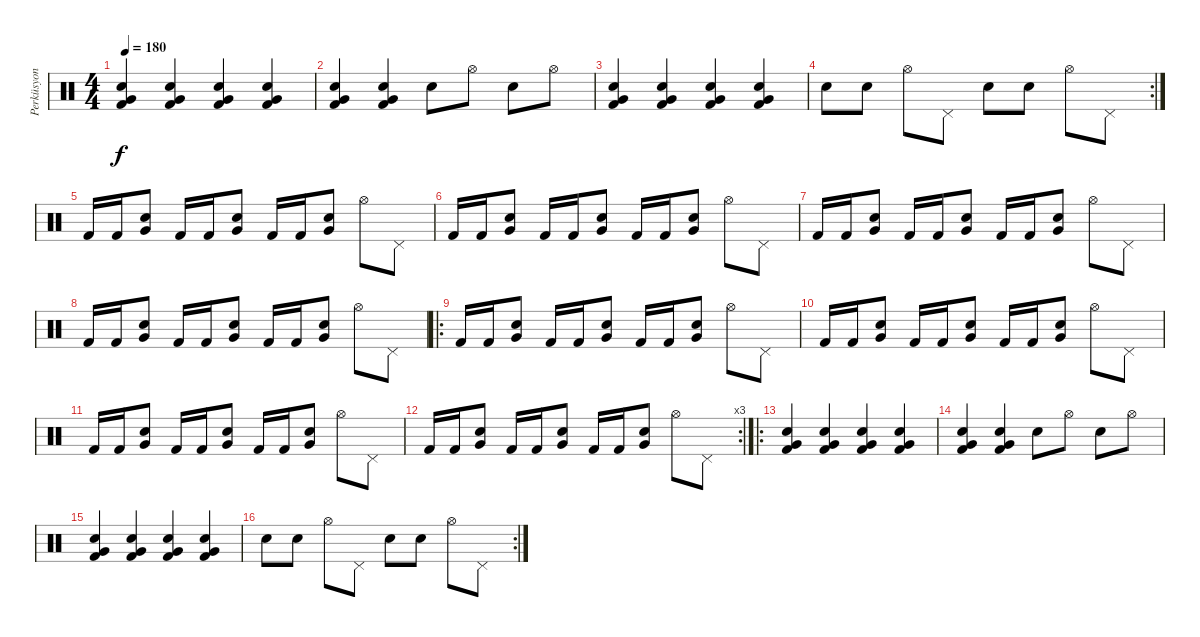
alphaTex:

\track ("Perküsyon" "Perküsyon") {instrument percussion}
\staff {score}
\articulation defaults
\ts (4 4)
\tempo 180
\clef neutral
\ks c
("Kick (hit) 2" "Very Low Tom (hit)" "Electric Snare (hit)").4{dy f} ("Kick (hit) 2" "Very Low Tom (hit)" "Electric Snare (hit)").4 ("Kick (hit) 2" "Very Low Tom (hit)" "Electric Snare (hit)").4 ("Kick (hit) 2" "Very Low Tom (hit)" "Electric Snare (hit)").4 |
("Kick (hit) 2" "Very Low Tom (hit)" "Electric Snare (hit)").4 ("Kick (hit) 2" "Very Low Tom (hit)" "Electric Snare (hit)").4 "Electric Snare (hit)".8 "Hi-Hat (open)".8 "Electric Snare (hit)".8 "Hi-Hat (open)".8 |
("Kick (hit) 2" "Very Low Tom (hit)" "Electric Snare (hit)").4 ("Kick (hit) 2" "Very Low Tom (hit)" "Electric Snare (hit)").4 ("Kick (hit) 2" "Very Low Tom (hit)" "Electric Snare (hit)").4 ("Kick (hit) 2" "Very Low Tom (hit)" "Electric Snare (hit)").4 |
\rc 2 "Electric Snare (hit)".8 "Electric Snare (hit)".8 "Hi-Hat (open)".8 "Pedal Hi-Hat (hit)".8 "Electric Snare (hit)".8 "Electric Snare (hit)".8 "Hi-Hat (open)".8 "Pedal Hi-Hat (hit)".8
|
"Kick (hit) 2".16 "Kick (hit) 2".16 ("Electric Snare (hit)" "Very Low Tom (hit)").8 "Kick (hit) 2".16 "Kick (hit) 2".16 ("Electric Snare (hit)" "Very Low Tom (hit)").8 "Kick (hit) 2".16 "Kick (hit) 2".16 ("Electric Snare (hit)" "Very Low Tom (hit)").8 "Hi-Hat (open)".8 "Pedal Hi-Hat (hit)".8 |
"Kick (hit) 2".16 "Kick (hit) 2".16 ("Electric Snare (hit)" "Very Low Tom (hit)").8 "Kick (hit) 2".16 "Kick (hit) 2".16 ("Electric Snare (hit)" "Very Low Tom (hit)").8 "Kick (hit) 2".16 "Kick (hit) 2".16 ("Electric Snare (hit)" "Very Low Tom (hit)").8 "Hi-Hat (open)".8 "Pedal Hi-Hat (hit)".8 |
"Kick (hit) 2".16 "Kick (hit) 2".16 ("Electric Snare (hit)" "Very Low Tom (hit)").8 "Kick (hit) 2".16 "Kick (hit) 2".16 ("Electric Snare (hit)" "Very Low Tom (hit)").8 "Kick (hit) 2".16 "Kick (hit) 2".16 ("Electric Snare (hit)" "Very Low Tom (hit)").8 "Hi-Hat (open)".8 "Pedal Hi-Hat (hit)".8 |
"Kick (hit) 2".16 "Kick (hit) 2".16 ("Electric Snare (hit)" "Very Low Tom (hit)").8 "Kick (hit) 2".16 "Kick (hit) 2".16 ("Electric Snare (hit)" "Very Low Tom (hit)").8 "Kick (hit) 2".16 "Kick (hit) 2".16 ("Electric Snare (hit)" "Very Low Tom (hit)").8 "Hi-Hat (open)".8 "Pedal Hi-Hat (hit)".8 |
\ro "Kick (hit) 2".16 "Kick (hit) 2".16
("Electric Snare (hit)" "Very Low Tom (hit)").8 "Kick (hit) 2".16 "Kick (hit) 2".16 ("Electric Snare (hit)" "Very Low Tom (hit)").8 "Kick (hit) 2".16 "Kick (hit) 2".16 ("Electric Snare (hit)" "Very Low Tom (hit)").8 "Hi-Hat (open)".8 "Pedal Hi-Hat (hit)".8 |
"Kick (hit) 2".16 "Kick (hit) 2".16 ("Electric Snare (hit)" "Very Low Tom (hit)").8 "Kick (hit) 2".16 "Kick (hit) 2".16 ("Electric Snare (hit)" "Very Low Tom (hit)").8 "Kick (hit) 2".16 "Kick (hit) 2".16 ("Electric Snare (hit)" "Very Low Tom (hit)").8 "Hi-Hat (open)".8 "Pedal Hi-Hat (hit)".8 |
"Kick (hit) 2".16 "Kick (hit) 2".16 ("Electric Snare (hit)" "Very Low Tom (hit)").8 "Kick (hit) 2".16 "Kick (hit) 2".16 ("Electric Snare (hit)" "Very Low Tom (hit)").8 "Kick (hit) 2".16 "Kick (hit) 2".16 ("Electric Snare (hit)" "Very Low Tom (hit)").8 "Hi-Hat (open)".8 "Pedal Hi-Hat (hit)".8 |
\rc 3 "Kick (hit) 2".16 "Kick (hit) 2".16
("Electric Snare (hit)" "Very Low Tom (hit)").8 "Kick (hit) 2".16 "Kick (hit) 2".16 ("Electric Snare (hit)" "Very Low Tom (hit)").8 "Kick (hit) 2".16 "Kick (hit) 2".16 ("Electric Snare (hit)" "Very Low Tom (hit)").8 "Hi-Hat (open)".8 "Pedal Hi-Hat (hit)".8 |
\ro
("Kick (hit) 2" "Very Low Tom (hit)" "Electric Snare (hit)").4 ("Kick (hit) 2" "Very Low Tom (hit)" "Electric Snare (hit)").4 ("Kick (hit) 2" "Very Low Tom (hit)" "Electric Snare (hit)").4 ("Kick (hit) 2" "Very Low Tom (hit)" "Electric Snare (hit)").4 |
("Kick (hit) 2" "Very Low Tom (hit)" "Electric Snare (hit)").4 ("Kick (hit) 2" "Very Low Tom (hit)" "Electric Snare (hit)").4 "Electric Snare (hit)".8 "Hi-Hat (open)".8 "Electric Snare (hit)".8 "Hi-Hat (open)".8 |
("Kick (hit) 2" "Very Low Tom (hit)" "Electric Snare (hit)").4 ("Kick (hit) 2" "Very Low Tom (hit)" "Electric Snare (hit)").4 ("Kick (hit) 2" "Very Low Tom (hit)" "Electric Snare (hit)").4 ("Kick (hit) 2" "Very Low Tom (hit)" "Electric Snare (hit)").4 |
\rc 2 "Electric Snare (hit)".8 "Electric Snare (hit)".8 "Hi-Hat (open)".8 "Pedal Hi-Hat (hit)".8 "Electric Snare (hit)".8 "Electric Snare (hit)".8 "Hi-Hat (open)".8 "Pedal Hi-Hat (hit)".8
